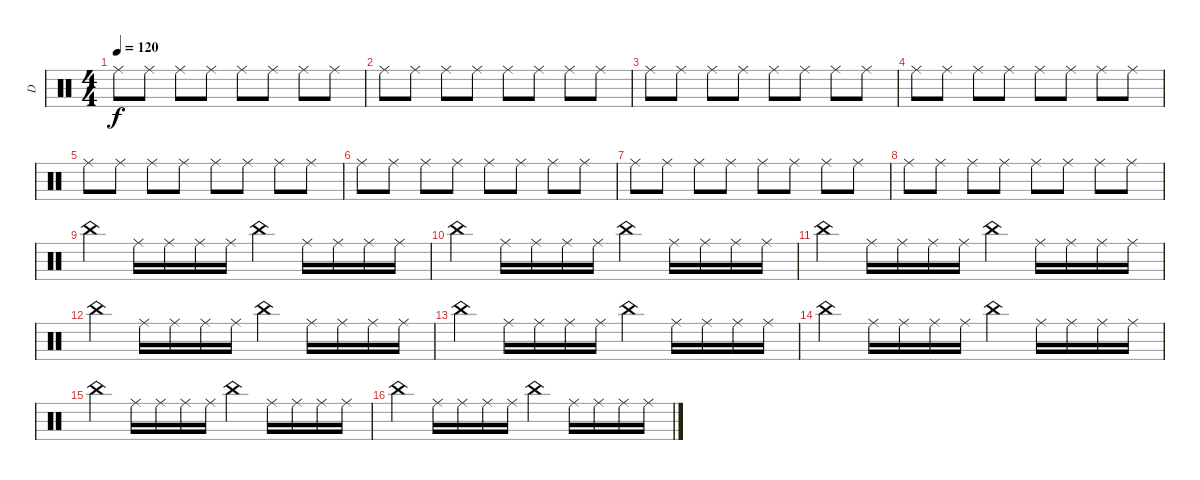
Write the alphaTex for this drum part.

\track ("D" "D") {instrument percussion}
\staff {score}
\articulation defaults
\ts (4 4)
\tempo 120
\clef neutral
\ks c "Ride (middle)".8{dy f} "Ride (middle)".8 "Ride (middle)".8 "Ride (middle)".8 "Ride (middle)".8 "Ride (middle)".8 "Ride (middle)".8 "Ride (middle)".8
|
"Ride (middle)".8 "Ride (middle)".8 "Ride (middle)".8 "Ride (middle)".8 "Ride (middle)".8 "Ride (middle)".8 "Ride (middle)".8 "Ride (middle)".8 |
"Ride (middle)".8 "Ride (middle)".8 "Ride (middle)".8 "Ride (middle)".8 "Ride (middle)".8 "Ride (middle)".8 "Ride (middle)".8 "Ride (middle)".8 |
"Ride (middle)".8 "Ride (middle)".8 "Ride (middle)".8 "Ride (middle)".8 "Ride (middle)".8 "Ride (middle)".8 "Ride (middle)".8 "Ride (middle)".8 |
"Ride (middle)".8 "Ride (middle)".8 "Ride (middle)".8 "Ride (middle)".8 "Ride (middle)".8 "Ride (middle)".8 "Ride (middle)".8 "Ride (middle)".8 |
"Ride (middle)".8 "Ride (middle)".8 "Ride (middle)".8 "Ride (middle)".8 "Ride (middle)".8 "Ride (middle)".8 "Ride (middle)".8 "Ride (middle)".8 |
"Ride (middle)".8 "Ride (middle)".8 "Ride (middle)".8 "Ride (middle)".8 "Ride (middle)".8 "Ride (middle)".8 "Ride (middle)".8 "Ride (middle)".8 |
"Ride (middle)".8 "Ride (middle)".8 "Ride (middle)".8 "Ride (middle)".8 "Ride (middle)".8 "Ride (middle)".8 "Ride (middle)".8 "Ride (middle)".8 |
"China (hit)".4 "Ride (middle)".16 "Ride (middle)".16 "Ride (middle)".16 "Ride (middle)".16 "China (hit)".4 "Ride (middle)".16 "Ride (middle)".16 "Ride (middle)".16 "Ride (middle)".16 |
"China (hit)".4 "Ride (middle)".16 "Ride (middle)".16 "Ride (middle)".16 "Ride (middle)".16 "China (hit)".4 "Ride (middle)".16 "Ride (middle)".16 "Ride (middle)".16 "Ride (middle)".16 |
"China (hit)".4 "Ride (middle)".16 "Ride (middle)".16 "Ride (middle)".16 "Ride (middle)".16 "China (hit)".4 "Ride (middle)".16 "Ride (middle)".16 "Ride (middle)".16 "Ride (middle)".16 |
"China (hit)".4 "Ride (middle)".16 "Ride (middle)".16 "Ride (middle)".16 "Ride (middle)".16 "China (hit)".4 "Ride (middle)".16 "Ride (middle)".16 "Ride (middle)".16 "Ride (middle)".16 |
"China (hit)".4 "Ride (middle)".16 "Ride (middle)".16 "Ride (middle)".16 "Ride (middle)".16 "China (hit)".4 "Ride (middle)".16 "Ride (middle)".16 "Ride (middle)".16 "Ride (middle)".16 |
"China (hit)".4 "Ride (middle)".16 "Ride (middle)".16 "Ride (middle)".16 "Ride (middle)".16 "China (hit)".4 "Ride (middle)".16 "Ride (middle)".16 "Ride (middle)".16 "Ride (middle)".16 |
"China (hit)".4 "Ride (middle)".16 "Ride (middle)".16 "Ride (middle)".16 "Ride (middle)".16 "China (hit)".4 "Ride (middle)".16 "Ride (middle)".16 "Ride (middle)".16 "Ride (middle)".16 |
"China (hit)".4 "Ride (middle)".16 "Ride (middle)".16 "Ride (middle)".16 "Ride (middle)".16 "China (hit)".4 "Ride (middle)".16 "Ride (middle)".16 "Ride (middle)".16 "Ride (middle)".16
